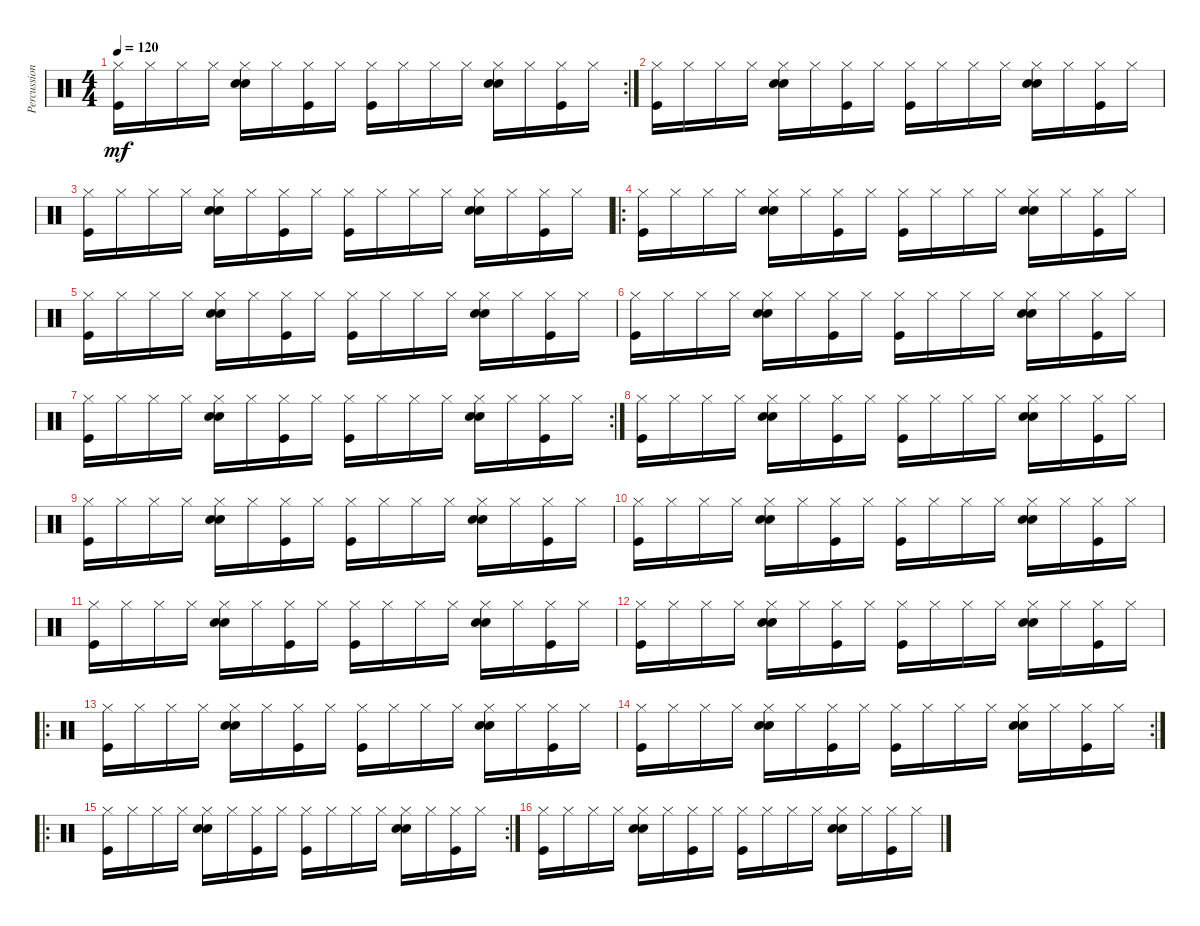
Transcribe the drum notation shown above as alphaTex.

\track ("Percussion" "Percussion") {instrument percussion}
\staff {score}
\articulation defaults
\rc 2
\ts (4 4)
\tempo 120
\clef neutral
\ks c
("Hi-Hat (closed)" "Kick (hit)").16{dy mf} "Hi-Hat (closed)".16 "Hi-Hat (closed)".16 "Hi-Hat (closed)".16 ("Hi-Hat (closed)" "Hand Clap (hit)" "Snare (hit) 2").16 "Hi-Hat (closed)".16 ("Hi-Hat (closed)" "Kick (hit)").16 "Hi-Hat (closed)".16 ("Hi-Hat (closed)" "Kick (hit)").16 "Hi-Hat (closed)".16 "Hi-Hat (closed)".16 "Hi-Hat (closed)".16 ("Hi-Hat (closed)" "Hand Clap (hit)" "Snare (hit) 2").16 "Hi-Hat (closed)".16 ("Hi-Hat (closed)" "Kick (hit)").16 "Hi-Hat (closed)".16 |
("Hi-Hat (closed)" "Kick (hit)").16 "Hi-Hat (closed)".16 "Hi-Hat (closed)".16 "Hi-Hat (closed)".16 ("Hi-Hat (closed)" "Hand Clap (hit)" "Snare (hit) 2").16 "Hi-Hat (closed)".16 ("Hi-Hat (closed)" "Kick (hit)").16 "Hi-Hat (closed)".16 ("Hi-Hat (closed)" "Kick (hit)").16 "Hi-Hat (closed)".16 "Hi-Hat (closed)".16 "Hi-Hat (closed)".16 ("Hi-Hat (closed)" "Hand Clap (hit)" "Snare (hit) 2").16 "Hi-Hat (closed)".16 ("Hi-Hat (closed)" "Kick (hit)").16 "Hi-Hat (closed)".16 |
("Hi-Hat (closed)" "Kick (hit)").16 "Hi-Hat (closed)".16 "Hi-Hat (closed)".16 "Hi-Hat (closed)".16 ("Hi-Hat (closed)" "Hand Clap (hit)" "Snare (hit) 2").16 "Hi-Hat (closed)".16 ("Hi-Hat (closed)" "Kick (hit)").16 "Hi-Hat (closed)".16 ("Hi-Hat (closed)" "Kick (hit)").16 "Hi-Hat (closed)".16 "Hi-Hat (closed)".16 "Hi-Hat (closed)".16 ("Hi-Hat (closed)" "Hand Clap (hit)" "Snare (hit) 2").16 "Hi-Hat (closed)".16 ("Hi-Hat (closed)" "Kick (hit)").16 "Hi-Hat (closed)".16 |
\ro
("Hi-Hat (closed)" "Kick (hit)").16 "Hi-Hat (closed)".16 "Hi-Hat (closed)".16 "Hi-Hat (closed)".16 ("Hi-Hat (closed)" "Hand Clap (hit)" "Snare (hit) 2").16 "Hi-Hat (closed)".16 ("Hi-Hat (closed)" "Kick (hit)").16 "Hi-Hat (closed)".16 ("Hi-Hat (closed)" "Kick (hit)").16 "Hi-Hat (closed)".16 "Hi-Hat (closed)".16 "Hi-Hat (closed)".16 ("Hi-Hat (closed)" "Hand Clap (hit)" "Snare (hit) 2").16 "Hi-Hat (closed)".16 ("Hi-Hat (closed)" "Kick (hit)").16 "Hi-Hat (closed)".16 |
("Hi-Hat (closed)" "Kick (hit)").16 "Hi-Hat (closed)".16 "Hi-Hat (closed)".16 "Hi-Hat (closed)".16 ("Hi-Hat (closed)" "Hand Clap (hit)" "Snare (hit) 2").16 "Hi-Hat (closed)".16 ("Hi-Hat (closed)" "Kick (hit)").16 "Hi-Hat (closed)".16 ("Hi-Hat (closed)" "Kick (hit)").16 "Hi-Hat (closed)".16 "Hi-Hat (closed)".16 "Hi-Hat (closed)".16 ("Hi-Hat (closed)" "Hand Clap (hit)" "Snare (hit) 2").16 "Hi-Hat (closed)".16 ("Hi-Hat (closed)" "Kick (hit)").16 "Hi-Hat (closed)".16 |
("Hi-Hat (closed)" "Kick (hit)").16 "Hi-Hat (closed)".16 "Hi-Hat (closed)".16 "Hi-Hat (closed)".16 ("Hi-Hat (closed)" "Hand Clap (hit)" "Snare (hit) 2").16 "Hi-Hat (closed)".16 ("Hi-Hat (closed)" "Kick (hit)").16 "Hi-Hat (closed)".16 ("Hi-Hat (closed)" "Kick (hit)").16 "Hi-Hat (closed)".16 "Hi-Hat (closed)".16 "Hi-Hat (closed)".16 ("Hi-Hat (closed)" "Hand Clap (hit)" "Snare (hit) 2").16 "Hi-Hat (closed)".16 ("Hi-Hat (closed)" "Kick (hit)").16 "Hi-Hat (closed)".16 |
\rc 2
("Hi-Hat (closed)" "Kick (hit)").16 "Hi-Hat (closed)".16 "Hi-Hat (closed)".16 "Hi-Hat (closed)".16 ("Hi-Hat (closed)" "Hand Clap (hit)" "Snare (hit) 2").16 "Hi-Hat (closed)".16 ("Hi-Hat (closed)" "Kick (hit)").16 "Hi-Hat (closed)".16 ("Hi-Hat (closed)" "Kick (hit)").16 "Hi-Hat (closed)".16 "Hi-Hat (closed)".16 "Hi-Hat (closed)".16 ("Hi-Hat (closed)" "Hand Clap (hit)" "Snare (hit) 2").16 "Hi-Hat (closed)".16 ("Hi-Hat (closed)" "Kick (hit)").16 "Hi-Hat (closed)".16 |
("Hi-Hat (closed)" "Kick (hit)").16 "Hi-Hat (closed)".16 "Hi-Hat (closed)".16 "Hi-Hat (closed)".16 ("Hi-Hat (closed)" "Hand Clap (hit)" "Snare (hit) 2").16 "Hi-Hat (closed)".16 ("Hi-Hat (closed)" "Kick (hit)").16 "Hi-Hat (closed)".16 ("Hi-Hat (closed)" "Kick (hit)").16 "Hi-Hat (closed)".16 "Hi-Hat (closed)".16 "Hi-Hat (closed)".16 ("Hi-Hat (closed)" "Hand Clap (hit)" "Snare (hit) 2").16 "Hi-Hat (closed)".16 ("Hi-Hat (closed)" "Kick (hit)").16 "Hi-Hat (closed)".16 |
("Hi-Hat (closed)" "Kick (hit)").16 "Hi-Hat (closed)".16 "Hi-Hat (closed)".16 "Hi-Hat (closed)".16 ("Hi-Hat (closed)" "Hand Clap (hit)" "Snare (hit) 2").16 "Hi-Hat (closed)".16 ("Hi-Hat (closed)" "Kick (hit)").16 "Hi-Hat (closed)".16 ("Hi-Hat (closed)" "Kick (hit)").16 "Hi-Hat (closed)".16 "Hi-Hat (closed)".16 "Hi-Hat (closed)".16 ("Hi-Hat (closed)" "Hand Clap (hit)" "Snare (hit) 2").16 "Hi-Hat (closed)".16 ("Hi-Hat (closed)" "Kick (hit)").16 "Hi-Hat (closed)".16 |
("Hi-Hat (closed)" "Kick (hit)").16 "Hi-Hat (closed)".16 "Hi-Hat (closed)".16 "Hi-Hat (closed)".16 ("Hi-Hat (closed)" "Hand Clap (hit)" "Snare (hit) 2").16 "Hi-Hat (closed)".16 ("Hi-Hat (closed)" "Kick (hit)").16 "Hi-Hat (closed)".16 ("Hi-Hat (closed)" "Kick (hit)").16 "Hi-Hat (closed)".16 "Hi-Hat (closed)".16 "Hi-Hat (closed)".16 ("Hi-Hat (closed)" "Hand Clap (hit)" "Snare (hit) 2").16 "Hi-Hat (closed)".16 ("Hi-Hat (closed)" "Kick (hit)").16 "Hi-Hat (closed)".16 |
("Hi-Hat (closed)" "Kick (hit)").16 "Hi-Hat (closed)".16 "Hi-Hat (closed)".16 "Hi-Hat (closed)".16 ("Hi-Hat (closed)" "Hand Clap (hit)" "Snare (hit) 2").16 "Hi-Hat (closed)".16 ("Hi-Hat (closed)" "Kick (hit)").16 "Hi-Hat (closed)".16 ("Hi-Hat (closed)" "Kick (hit)").16 "Hi-Hat (closed)".16 "Hi-Hat (closed)".16 "Hi-Hat (closed)".16 ("Hi-Hat (closed)" "Hand Clap (hit)" "Snare (hit) 2").16 "Hi-Hat (closed)".16 ("Hi-Hat (closed)" "Kick (hit)").16 "Hi-Hat (closed)".16 |
("Hi-Hat (closed)" "Kick (hit)").16 "Hi-Hat (closed)".16 "Hi-Hat (closed)".16 "Hi-Hat (closed)".16 ("Hi-Hat (closed)" "Hand Clap (hit)" "Snare (hit) 2").16 "Hi-Hat (closed)".16 ("Hi-Hat (closed)" "Kick (hit)").16 "Hi-Hat (closed)".16 ("Hi-Hat (closed)" "Kick (hit)").16 "Hi-Hat (closed)".16 "Hi-Hat (closed)".16 "Hi-Hat (closed)".16 ("Hi-Hat (closed)" "Hand Clap (hit)" "Snare (hit) 2").16 "Hi-Hat (closed)".16 ("Hi-Hat (closed)" "Kick (hit)").16 "Hi-Hat (closed)".16 |
\ro
("Hi-Hat (closed)" "Kick (hit)").16 "Hi-Hat (closed)".16 "Hi-Hat (closed)".16 "Hi-Hat (closed)".16 ("Hi-Hat (closed)" "Hand Clap (hit)" "Snare (hit) 2").16 "Hi-Hat (closed)".16 ("Hi-Hat (closed)" "Kick (hit)").16 "Hi-Hat (closed)".16 ("Hi-Hat (closed)" "Kick (hit)").16 "Hi-Hat (closed)".16 "Hi-Hat (closed)".16 "Hi-Hat (closed)".16 ("Hi-Hat (closed)" "Hand Clap (hit)" "Snare (hit) 2").16 "Hi-Hat (closed)".16 ("Hi-Hat (closed)" "Kick (hit)").16 "Hi-Hat (closed)".16 |
\rc 2
("Hi-Hat (closed)" "Kick (hit)").16 "Hi-Hat (closed)".16 "Hi-Hat (closed)".16 "Hi-Hat (closed)".16 ("Hi-Hat (closed)" "Hand Clap (hit)" "Snare (hit) 2").16 "Hi-Hat (closed)".16 ("Hi-Hat (closed)" "Kick (hit)").16 "Hi-Hat (closed)".16 ("Hi-Hat (closed)" "Kick (hit)").16 "Hi-Hat (closed)".16 "Hi-Hat (closed)".16 "Hi-Hat (closed)".16 ("Hi-Hat (closed)" "Hand Clap (hit)" "Snare (hit) 2").16 "Hi-Hat (closed)".16 ("Hi-Hat (closed)" "Kick (hit)").16 "Hi-Hat (closed)".16 |
\ro
\rc 2
("Hi-Hat (closed)" "Kick (hit)").16 "Hi-Hat (closed)".16 "Hi-Hat (closed)".16 "Hi-Hat (closed)".16 ("Hi-Hat (closed)" "Hand Clap (hit)" "Snare (hit) 2").16 "Hi-Hat (closed)".16 ("Hi-Hat (closed)" "Kick (hit)").16 "Hi-Hat (closed)".16 ("Hi-Hat (closed)" "Kick (hit)").16 "Hi-Hat (closed)".16 "Hi-Hat (closed)".16 "Hi-Hat (closed)".16 ("Hi-Hat (closed)" "Hand Clap (hit)" "Snare (hit) 2").16 "Hi-Hat (closed)".16 ("Hi-Hat (closed)" "Kick (hit)").16 "Hi-Hat (closed)".16 |
("Hi-Hat (closed)" "Kick (hit)").16 "Hi-Hat (closed)".16 "Hi-Hat (closed)".16 "Hi-Hat (closed)".16 ("Hi-Hat (closed)" "Hand Clap (hit)" "Snare (hit) 2").16 "Hi-Hat (closed)".16 ("Hi-Hat (closed)" "Kick (hit)").16 "Hi-Hat (closed)".16 ("Hi-Hat (closed)" "Kick (hit)").16 "Hi-Hat (closed)".16 "Hi-Hat (closed)".16 "Hi-Hat (closed)".16 ("Hi-Hat (closed)" "Hand Clap (hit)" "Snare (hit) 2").16 "Hi-Hat (closed)".16 ("Hi-Hat (closed)" "Kick (hit)").16 "Hi-Hat (closed)".16
